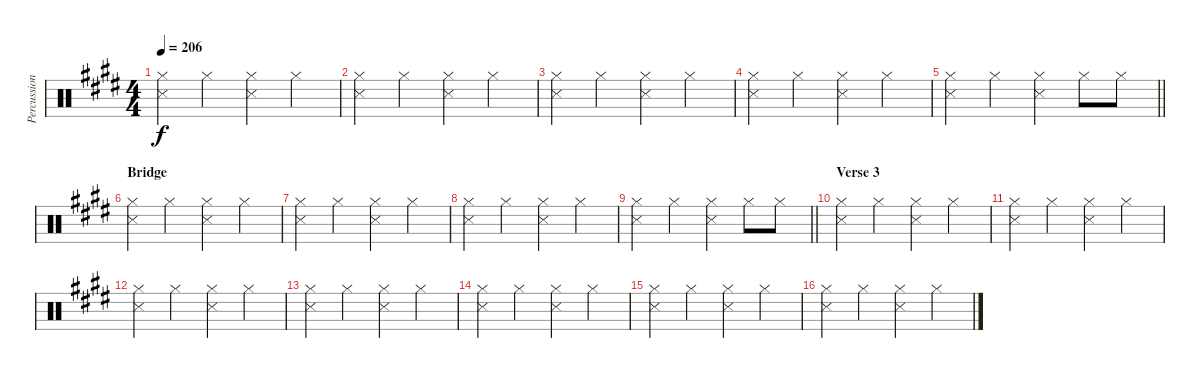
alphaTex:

\track ("Percussion" "Percussion") {instrument percussion}
\staff {score}
\articulation defaults
\ts (4 4)
\tempo 206
\clef neutral
\ks e
("Hi-Hat (closed)" "Snare (side stick) 3").4{dy f} "Hi-Hat (closed)".4 ("Hi-Hat (closed)" "Snare (side stick) 3").4 "Hi-Hat (closed)".4 |
("Hi-Hat (closed)" "Snare (side stick) 3").4 "Hi-Hat (closed)".4 ("Hi-Hat (closed)" "Snare (side stick) 3").4 "Hi-Hat (closed)".4 |
("Hi-Hat (closed)" "Snare (side stick) 3").4 "Hi-Hat (closed)".4 ("Hi-Hat (closed)" "Snare (side stick) 3").4 "Hi-Hat (closed)".4 |
("Hi-Hat (closed)" "Snare (side stick) 3").4 "Hi-Hat (closed)".4 ("Hi-Hat (closed)" "Snare (side stick) 3").4 "Hi-Hat (closed)".4 |
\barLineRight lightlight
("Hi-Hat (closed)" "Snare (side stick) 3").4 "Hi-Hat (closed)".4 ("Hi-Hat (closed)" "Snare (side stick) 3").4 "Hi-Hat (closed)".8 "Hi-Hat (closed)".8 |
\section ("" "Bridge")
("Hi-Hat (closed)" "Snare (side stick) 3").4 "Hi-Hat (closed)".4 ("Hi-Hat (closed)" "Snare (side stick) 3").4 "Hi-Hat (closed)".4 |
("Hi-Hat (closed)" "Snare (side stick) 3").4 "Hi-Hat (closed)".4 ("Hi-Hat (closed)" "Snare (side stick) 3").4 "Hi-Hat (closed)".4 |
("Hi-Hat (closed)" "Snare (side stick) 3").4 "Hi-Hat (closed)".4 ("Hi-Hat (closed)" "Snare (side stick) 3").4 "Hi-Hat (closed)".4 |
\barLineRight lightlight
("Hi-Hat (closed)" "Snare (side stick) 3").4 "Hi-Hat (closed)".4 ("Hi-Hat (closed)" "Snare (side stick) 3").4 "Hi-Hat (closed)".8 "Hi-Hat (closed)".8 |
\section ("" "Verse 3")
("Hi-Hat (closed)" "Snare (side stick) 3").4 "Hi-Hat (closed)".4 ("Hi-Hat (closed)" "Snare (side stick) 3").4 "Hi-Hat (closed)".4 |
("Hi-Hat (closed)" "Snare (side stick) 3").4 "Hi-Hat (closed)".4 ("Hi-Hat (closed)" "Snare (side stick) 3").4 "Hi-Hat (closed)".4 |
("Hi-Hat (closed)" "Snare (side stick) 3").4 "Hi-Hat (closed)".4 ("Hi-Hat (closed)" "Snare (side stick) 3").4 "Hi-Hat (closed)".4 |
("Hi-Hat (closed)" "Snare (side stick) 3").4 "Hi-Hat (closed)".4 ("Hi-Hat (closed)" "Snare (side stick) 3").4 "Hi-Hat (closed)".4 |
("Hi-Hat (closed)" "Snare (side stick) 3").4 "Hi-Hat (closed)".4 ("Hi-Hat (closed)" "Snare (side stick) 3").4 "Hi-Hat (closed)".4 |
("Hi-Hat (closed)" "Snare (side stick) 3").4 "Hi-Hat (closed)".4 ("Hi-Hat (closed)" "Snare (side stick) 3").4 "Hi-Hat (closed)".4 |
("Hi-Hat (closed)" "Snare (side stick) 3").4 "Hi-Hat (closed)".4 ("Hi-Hat (closed)" "Snare (side stick) 3").4 "Hi-Hat (closed)".4
